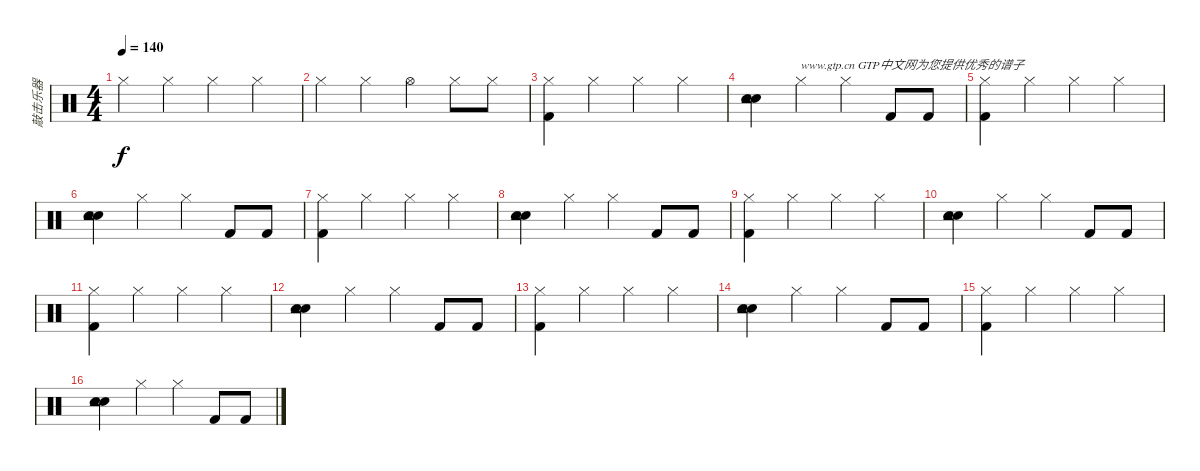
\track ("敲击乐器" "敲击乐器") {instrument percussion bank 3}
\staff {score}
\articulation defaults
\ts (4 4)
\tempo 140
\clef neutral
\ks c "Hi-Hat (closed)".4{dy f} "Hi-Hat (closed)".4 "Hi-Hat (closed)".4 "Hi-Hat (closed)".4
|
"Hi-Hat (closed)".4 "Hi-Hat (closed)".4 "Hi-Hat (open)".4 "Hi-Hat (closed)".8 "Hi-Hat (closed)".8 |
("Kick (hit) 2" "Hi-Hat (closed)").4 "Hi-Hat (closed)".4 "Hi-Hat (closed)".4 "Hi-Hat (closed)".4 |
("Snare (hit) 2" "Electric Snare (hit)" "Tambourine (hit)").4 "Hi-Hat (closed)".4{txt "www.gtp.cn GTP中文网为您提供优秀的谱子"} "Hi-Hat (closed)".4 "Kick (hit) 2".8 "Kick (hit) 2".8 |
("Kick (hit) 2" "Hi-Hat (closed)").4 "Hi-Hat (closed)".4 "Hi-Hat (closed)".4 "Hi-Hat (closed)".4 |
("Snare (hit) 2" "Electric Snare (hit)" "Tambourine (hit)").4 "Hi-Hat (closed)".4 "Hi-Hat (closed)".4 "Kick (hit) 2".8 "Kick (hit) 2".8 |
("Kick (hit) 2" "Hi-Hat (closed)").4 "Hi-Hat (closed)".4 "Hi-Hat (closed)".4 "Hi-Hat (closed)".4 |
("Snare (hit) 2" "Electric Snare (hit)" "Tambourine (hit)").4 "Hi-Hat (closed)".4 "Hi-Hat (closed)".4 "Kick (hit) 2".8 "Kick (hit) 2".8 |
("Kick (hit) 2" "Hi-Hat (closed)").4 "Hi-Hat (closed)".4 "Hi-Hat (closed)".4 "Hi-Hat (closed)".4 |
("Snare (hit) 2" "Electric Snare (hit)" "Tambourine (hit)").4 "Hi-Hat (closed)".4 "Hi-Hat (closed)".4 "Kick (hit) 2".8 "Kick (hit) 2".8 |
("Kick (hit) 2" "Hi-Hat (closed)").4 "Hi-Hat (closed)".4 "Hi-Hat (closed)".4 "Hi-Hat (closed)".4 |
("Snare (hit) 2" "Electric Snare (hit)" "Tambourine (hit)").4 "Hi-Hat (closed)".4 "Hi-Hat (closed)".4 "Kick (hit) 2".8 "Kick (hit) 2".8 |
("Kick (hit) 2" "Hi-Hat (closed)").4 "Hi-Hat (closed)".4 "Hi-Hat (closed)".4 "Hi-Hat (closed)".4 |
("Snare (hit) 2" "Electric Snare (hit)" "Tambourine (hit)").4 "Hi-Hat (closed)".4 "Hi-Hat (closed)".4 "Kick (hit) 2".8 "Kick (hit) 2".8 |
("Kick (hit) 2" "Hi-Hat (closed)").4 "Hi-Hat (closed)".4 "Hi-Hat (closed)".4 "Hi-Hat (closed)".4 |
("Snare (hit) 2" "Electric Snare (hit)" "Tambourine (hit)").4 "Hi-Hat (closed)".4 "Hi-Hat (closed)".4 "Kick (hit) 2".8 "Kick (hit) 2".8
